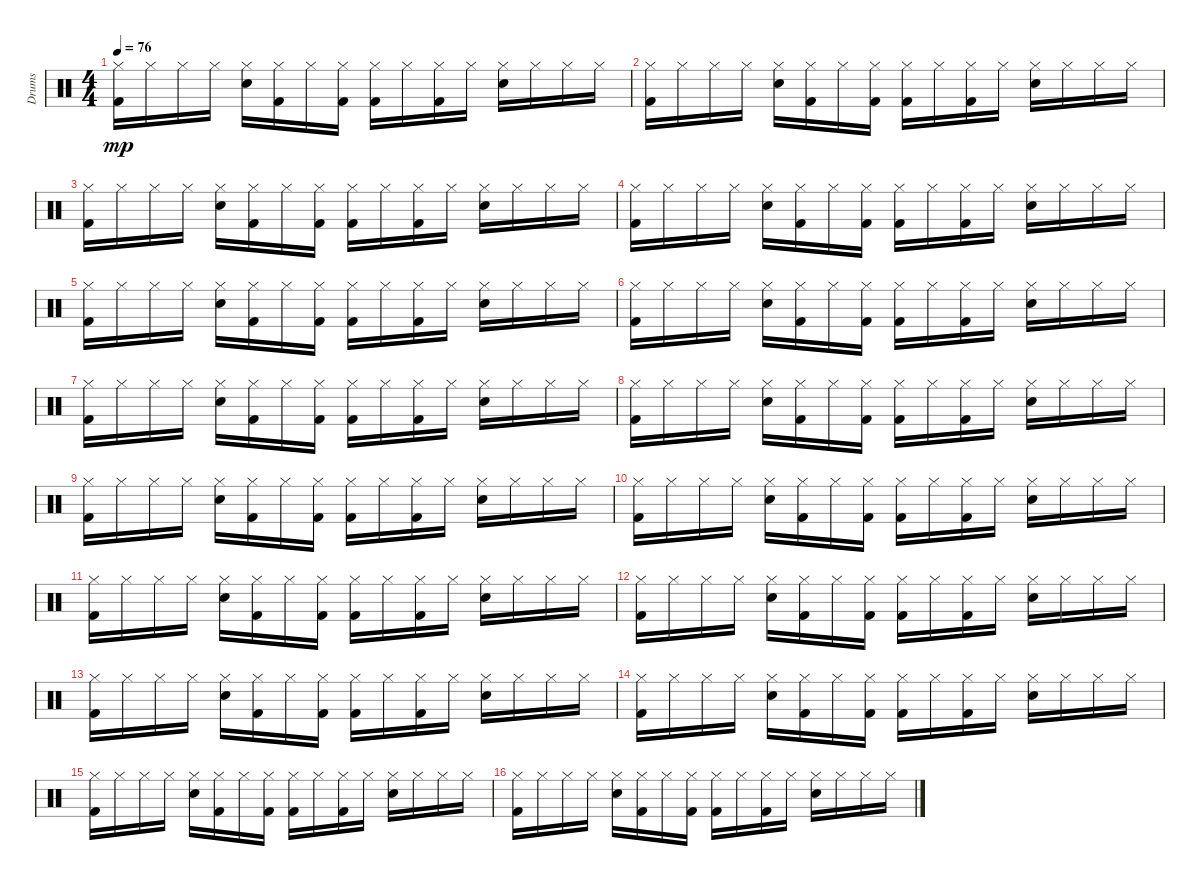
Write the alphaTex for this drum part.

\track ("Drums" "Drums") {instrument percussion}
\staff {score}
\articulation defaults
\ts (4 4)
\tempo 76
\clef neutral
\ks c
("Hi-Hat (closed)" "Kick (hit) 2").16{dy mp} "Hi-Hat (closed)".16 "Hi-Hat (closed)".16 "Hi-Hat (closed)".16 ("Hi-Hat (closed)" "Snare (hit) 2").16 ("Hi-Hat (closed)" "Kick (hit) 2").16 "Hi-Hat (closed)".16 ("Hi-Hat (closed)" "Kick (hit) 2").16 ("Hi-Hat (closed)" "Kick (hit) 2").16 "Hi-Hat (closed)".16 ("Hi-Hat (closed)" "Kick (hit) 2").16 "Hi-Hat (closed)".16 ("Snare (hit) 2" "Hi-Hat (closed)").16 "Hi-Hat (closed)".16 "Hi-Hat (closed)".16 "Hi-Hat (closed)".16 |
("Hi-Hat (closed)" "Kick (hit) 2").16 "Hi-Hat (closed)".16 "Hi-Hat (closed)".16 "Hi-Hat (closed)".16 ("Hi-Hat (closed)" "Snare (hit) 2").16 ("Hi-Hat (closed)" "Kick (hit) 2").16 "Hi-Hat (closed)".16 ("Hi-Hat (closed)" "Kick (hit) 2").16 ("Hi-Hat (closed)" "Kick (hit) 2").16 "Hi-Hat (closed)".16 ("Hi-Hat (closed)" "Kick (hit) 2").16 "Hi-Hat (closed)".16 ("Snare (hit) 2" "Hi-Hat (closed)").16 "Hi-Hat (closed)".16 "Hi-Hat (closed)".16 "Hi-Hat (closed)".16 |
("Hi-Hat (closed)" "Kick (hit) 2").16 "Hi-Hat (closed)".16 "Hi-Hat (closed)".16 "Hi-Hat (closed)".16 ("Hi-Hat (closed)" "Snare (hit) 2").16 ("Hi-Hat (closed)" "Kick (hit) 2").16 "Hi-Hat (closed)".16 ("Hi-Hat (closed)" "Kick (hit) 2").16 ("Hi-Hat (closed)" "Kick (hit) 2").16 "Hi-Hat (closed)".16 ("Hi-Hat (closed)" "Kick (hit) 2").16 "Hi-Hat (closed)".16 ("Snare (hit) 2" "Hi-Hat (closed)").16 "Hi-Hat (closed)".16 "Hi-Hat (closed)".16 "Hi-Hat (closed)".16 |
("Hi-Hat (closed)" "Kick (hit) 2").16 "Hi-Hat (closed)".16 "Hi-Hat (closed)".16 "Hi-Hat (closed)".16 ("Hi-Hat (closed)" "Snare (hit) 2").16 ("Hi-Hat (closed)" "Kick (hit) 2").16 "Hi-Hat (closed)".16 ("Hi-Hat (closed)" "Kick (hit) 2").16 ("Hi-Hat (closed)" "Kick (hit) 2").16 "Hi-Hat (closed)".16 ("Hi-Hat (closed)" "Kick (hit) 2").16 "Hi-Hat (closed)".16 ("Snare (hit) 2" "Hi-Hat (closed)").16 "Hi-Hat (closed)".16 "Hi-Hat (closed)".16 "Hi-Hat (closed)".16 |
("Hi-Hat (closed)" "Kick (hit) 2").16 "Hi-Hat (closed)".16 "Hi-Hat (closed)".16 "Hi-Hat (closed)".16 ("Hi-Hat (closed)" "Snare (hit) 2").16 ("Hi-Hat (closed)" "Kick (hit) 2").16 "Hi-Hat (closed)".16 ("Hi-Hat (closed)" "Kick (hit) 2").16 ("Hi-Hat (closed)" "Kick (hit) 2").16 "Hi-Hat (closed)".16 ("Hi-Hat (closed)" "Kick (hit) 2").16 "Hi-Hat (closed)".16 ("Snare (hit) 2" "Hi-Hat (closed)").16 "Hi-Hat (closed)".16 "Hi-Hat (closed)".16 "Hi-Hat (closed)".16 |
("Hi-Hat (closed)" "Kick (hit) 2").16 "Hi-Hat (closed)".16 "Hi-Hat (closed)".16 "Hi-Hat (closed)".16 ("Hi-Hat (closed)" "Snare (hit) 2").16 ("Hi-Hat (closed)" "Kick (hit) 2").16 "Hi-Hat (closed)".16 ("Hi-Hat (closed)" "Kick (hit) 2").16 ("Hi-Hat (closed)" "Kick (hit) 2").16 "Hi-Hat (closed)".16 ("Hi-Hat (closed)" "Kick (hit) 2").16 "Hi-Hat (closed)".16 ("Snare (hit) 2" "Hi-Hat (closed)").16 "Hi-Hat (closed)".16 "Hi-Hat (closed)".16 "Hi-Hat (closed)".16 |
("Hi-Hat (closed)" "Kick (hit) 2").16 "Hi-Hat (closed)".16 "Hi-Hat (closed)".16 "Hi-Hat (closed)".16 ("Hi-Hat (closed)" "Snare (hit) 2").16 ("Hi-Hat (closed)" "Kick (hit) 2").16 "Hi-Hat (closed)".16 ("Hi-Hat (closed)" "Kick (hit) 2").16 ("Hi-Hat (closed)" "Kick (hit) 2").16 "Hi-Hat (closed)".16 ("Hi-Hat (closed)" "Kick (hit) 2").16 "Hi-Hat (closed)".16 ("Snare (hit) 2" "Hi-Hat (closed)").16 "Hi-Hat (closed)".16 "Hi-Hat (closed)".16 "Hi-Hat (closed)".16 |
("Hi-Hat (closed)" "Kick (hit) 2").16 "Hi-Hat (closed)".16 "Hi-Hat (closed)".16 "Hi-Hat (closed)".16 ("Hi-Hat (closed)" "Snare (hit) 2").16 ("Hi-Hat (closed)" "Kick (hit) 2").16 "Hi-Hat (closed)".16 ("Hi-Hat (closed)" "Kick (hit) 2").16 ("Hi-Hat (closed)" "Kick (hit) 2").16 "Hi-Hat (closed)".16 ("Hi-Hat (closed)" "Kick (hit) 2").16 "Hi-Hat (closed)".16 ("Snare (hit) 2" "Hi-Hat (closed)").16 "Hi-Hat (closed)".16 "Hi-Hat (closed)".16 "Hi-Hat (closed)".16 |
("Hi-Hat (closed)" "Kick (hit) 2").16 "Hi-Hat (closed)".16 "Hi-Hat (closed)".16 "Hi-Hat (closed)".16 ("Hi-Hat (closed)" "Snare (hit) 2").16 ("Hi-Hat (closed)" "Kick (hit) 2").16 "Hi-Hat (closed)".16 ("Hi-Hat (closed)" "Kick (hit) 2").16 ("Hi-Hat (closed)" "Kick (hit) 2").16 "Hi-Hat (closed)".16 ("Hi-Hat (closed)" "Kick (hit) 2").16 "Hi-Hat (closed)".16 ("Snare (hit) 2" "Hi-Hat (closed)").16 "Hi-Hat (closed)".16 "Hi-Hat (closed)".16 "Hi-Hat (closed)".16 |
("Hi-Hat (closed)" "Kick (hit) 2").16 "Hi-Hat (closed)".16 "Hi-Hat (closed)".16 "Hi-Hat (closed)".16 ("Hi-Hat (closed)" "Snare (hit) 2").16 ("Hi-Hat (closed)" "Kick (hit) 2").16 "Hi-Hat (closed)".16 ("Hi-Hat (closed)" "Kick (hit) 2").16 ("Hi-Hat (closed)" "Kick (hit) 2").16 "Hi-Hat (closed)".16 ("Hi-Hat (closed)" "Kick (hit) 2").16 "Hi-Hat (closed)".16 ("Snare (hit) 2" "Hi-Hat (closed)").16 "Hi-Hat (closed)".16 "Hi-Hat (closed)".16 "Hi-Hat (closed)".16 |
("Hi-Hat (closed)" "Kick (hit) 2").16 "Hi-Hat (closed)".16 "Hi-Hat (closed)".16 "Hi-Hat (closed)".16 ("Hi-Hat (closed)" "Snare (hit) 2").16 ("Hi-Hat (closed)" "Kick (hit) 2").16 "Hi-Hat (closed)".16 ("Hi-Hat (closed)" "Kick (hit) 2").16 ("Hi-Hat (closed)" "Kick (hit) 2").16 "Hi-Hat (closed)".16 ("Hi-Hat (closed)" "Kick (hit) 2").16 "Hi-Hat (closed)".16 ("Snare (hit) 2" "Hi-Hat (closed)").16 "Hi-Hat (closed)".16 "Hi-Hat (closed)".16 "Hi-Hat (closed)".16 |
("Hi-Hat (closed)" "Kick (hit) 2").16 "Hi-Hat (closed)".16 "Hi-Hat (closed)".16 "Hi-Hat (closed)".16 ("Hi-Hat (closed)" "Snare (hit) 2").16 ("Hi-Hat (closed)" "Kick (hit) 2").16 "Hi-Hat (closed)".16 ("Hi-Hat (closed)" "Kick (hit) 2").16 ("Hi-Hat (closed)" "Kick (hit) 2").16 "Hi-Hat (closed)".16 ("Hi-Hat (closed)" "Kick (hit) 2").16 "Hi-Hat (closed)".16 ("Snare (hit) 2" "Hi-Hat (closed)").16 "Hi-Hat (closed)".16 "Hi-Hat (closed)".16 "Hi-Hat (closed)".16 |
("Hi-Hat (closed)" "Kick (hit) 2").16 "Hi-Hat (closed)".16 "Hi-Hat (closed)".16 "Hi-Hat (closed)".16 ("Hi-Hat (closed)" "Snare (hit) 2").16 ("Hi-Hat (closed)" "Kick (hit) 2").16 "Hi-Hat (closed)".16 ("Hi-Hat (closed)" "Kick (hit) 2").16 ("Hi-Hat (closed)" "Kick (hit) 2").16 "Hi-Hat (closed)".16 ("Hi-Hat (closed)" "Kick (hit) 2").16 "Hi-Hat (closed)".16 ("Snare (hit) 2" "Hi-Hat (closed)").16 "Hi-Hat (closed)".16 "Hi-Hat (closed)".16 "Hi-Hat (closed)".16 |
("Hi-Hat (closed)" "Kick (hit) 2").16 "Hi-Hat (closed)".16 "Hi-Hat (closed)".16 "Hi-Hat (closed)".16 ("Hi-Hat (closed)" "Snare (hit) 2").16 ("Hi-Hat (closed)" "Kick (hit) 2").16 "Hi-Hat (closed)".16 ("Hi-Hat (closed)" "Kick (hit) 2").16 ("Hi-Hat (closed)" "Kick (hit) 2").16 "Hi-Hat (closed)".16 ("Hi-Hat (closed)" "Kick (hit) 2").16 "Hi-Hat (closed)".16 ("Snare (hit) 2" "Hi-Hat (closed)").16 "Hi-Hat (closed)".16 "Hi-Hat (closed)".16 "Hi-Hat (closed)".16 |
("Hi-Hat (closed)" "Kick (hit) 2").16 "Hi-Hat (closed)".16 "Hi-Hat (closed)".16 "Hi-Hat (closed)".16 ("Hi-Hat (closed)" "Snare (hit) 2").16 ("Hi-Hat (closed)" "Kick (hit) 2").16 "Hi-Hat (closed)".16 ("Hi-Hat (closed)" "Kick (hit) 2").16 ("Hi-Hat (closed)" "Kick (hit) 2").16 "Hi-Hat (closed)".16 ("Hi-Hat (closed)" "Kick (hit) 2").16 "Hi-Hat (closed)".16 ("Snare (hit) 2" "Hi-Hat (closed)").16 "Hi-Hat (closed)".16 "Hi-Hat (closed)".16 "Hi-Hat (closed)".16 |
("Hi-Hat (closed)" "Kick (hit) 2").16 "Hi-Hat (closed)".16 "Hi-Hat (closed)".16 "Hi-Hat (closed)".16 ("Hi-Hat (closed)" "Snare (hit) 2").16 ("Hi-Hat (closed)" "Kick (hit) 2").16 "Hi-Hat (closed)".16 ("Hi-Hat (closed)" "Kick (hit) 2").16 ("Hi-Hat (closed)" "Kick (hit) 2").16 "Hi-Hat (closed)".16 ("Hi-Hat (closed)" "Kick (hit) 2").16 "Hi-Hat (closed)".16 ("Snare (hit) 2" "Hi-Hat (closed)").16 "Hi-Hat (closed)".16 "Hi-Hat (closed)".16 "Hi-Hat (closed)".16
